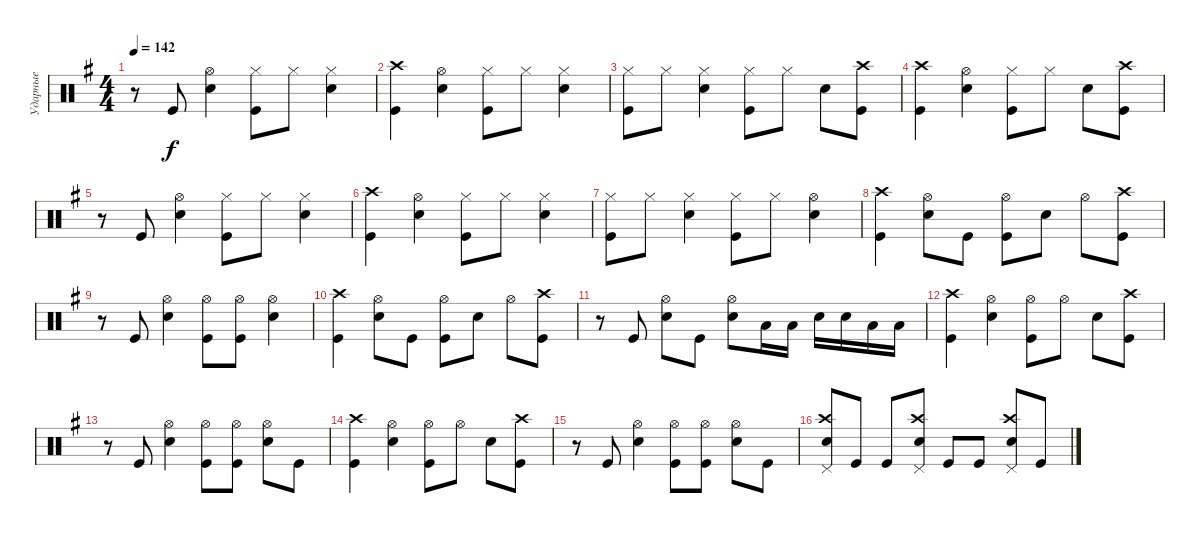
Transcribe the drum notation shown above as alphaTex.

\track ("Ударные" "Ударные") {instrument percussion}
\staff {score}
\articulation defaults
\ts (4 4)
\tempo 142
\clef neutral
\ks eminor
r.8{dy f} "Kick (hit)".8 ("Snare (hit) 2" "Hi-Hat (open)").4 ("Kick (hit)" "Hi-Hat (closed)").8 "Hi-Hat (closed)".8 ("Snare (hit) 2" "Hi-Hat (closed)").4 |
("Kick (hit)" "Crash high (hit)").4 ("Snare (hit) 2" "Hi-Hat (open)").4 ("Kick (hit)" "Hi-Hat (closed)").8 "Hi-Hat (closed)".8 ("Snare (hit) 2" "Hi-Hat (closed)").4 |
("Hi-Hat (closed)" "Kick (hit)").8 "Hi-Hat (closed)".8 ("Snare (hit) 2" "Hi-Hat (closed)").4 ("Kick (hit)" "Hi-Hat (closed)").8 "Hi-Hat (closed)".8 "Snare (hit) 2".8 ("Kick (hit)" "Crash high (hit)").8 |
("Kick (hit)" "Crash high (hit)").4 ("Snare (hit) 2" "Hi-Hat (open)").4 ("Kick (hit)" "Hi-Hat (closed)").8 "Hi-Hat (closed)".8 "Snare (hit) 2".8 ("Kick (hit)" "Crash high (hit)").8 |
r.8 "Kick (hit)".8 ("Snare (hit) 2" "Hi-Hat (open)").4 ("Kick (hit)" "Hi-Hat (closed)").8 "Hi-Hat (closed)".8 ("Snare (hit) 2" "Hi-Hat (closed)").4 |
("Kick (hit)" "Crash high (hit)").4 ("Snare (hit) 2" "Hi-Hat (open)").4 ("Kick (hit)" "Hi-Hat (closed)").8 "Hi-Hat (closed)".8 ("Snare (hit) 2" "Hi-Hat (closed)").4 |
("Hi-Hat (closed)" "Kick (hit)").8 "Hi-Hat (closed)".8 ("Snare (hit) 2" "Hi-Hat (closed)").4 ("Kick (hit)" "Hi-Hat (closed)").8 "Hi-Hat (closed)".8 ("Hi-Hat (open)" "Snare (hit) 2").4 |
("Kick (hit)" "Crash high (hit)").4 ("Snare (hit) 2" "Hi-Hat (open)").8 "Kick (hit)".8 ("Kick (hit)" "Hi-Hat (open)").8 "Snare (hit) 2".8 "Hi-Hat (open)".8 ("Kick (hit)" "Crash high (hit)").8 |
r.8 "Kick (hit)".8 ("Snare (hit) 2" "Hi-Hat (open)").4 ("Kick (hit)" "Hi-Hat (open)").8 ("Kick (hit)" "Hi-Hat (open)").8 ("Snare (hit) 2" "Hi-Hat (open)").4 |
("Kick (hit)" "Crash high (hit)").4 ("Snare (hit) 2" "Hi-Hat (open)").8 "Kick (hit)".8 ("Kick (hit)" "Hi-Hat (open)").8 "Snare (hit) 2".8 "Hi-Hat (open)".8 ("Kick (hit)" "Crash high (hit)").8 |
r.8 "Kick (hit)".8 ("Snare (hit) 2" "Hi-Hat (open)").8 "Kick (hit)".8 ("Snare (hit) 2" "Hi-Hat (open)").8 "Low Tom (hit)".16 "Low Tom (hit)".16 "Snare (hit) 2".16 "Snare (hit) 2".16 "Low Tom (hit)".16 "Low Tom (hit)".16 |
("Kick (hit)" "Crash high (hit)").4 ("Snare (hit) 2" "Hi-Hat (open)").4 ("Kick (hit)" "Hi-Hat (open)").8 "Hi-Hat (open)".8 "Snare (hit) 2".8 ("Kick (hit)" "Crash high (hit)").8 |
r.8 "Kick (hit)".8 ("Snare (hit) 2" "Hi-Hat (open)").4 ("Kick (hit)" "Hi-Hat (open)").8 ("Kick (hit)" "Hi-Hat (open)").8 ("Snare (hit) 2" "Hi-Hat (open)").8 "Kick (hit)".8 |
("Kick (hit)" "Crash high (hit)").4 ("Snare (hit) 2" "Hi-Hat (open)").4 ("Kick (hit)" "Hi-Hat (open)").8 "Hi-Hat (open)".8 "Snare (hit) 2".8 ("Kick (hit)" "Crash high (hit)").8 |
r.8 "Kick (hit)".8 ("Snare (hit) 2" "Hi-Hat (open)").4 ("Kick (hit)" "Hi-Hat (open)").8 ("Kick (hit)" "Hi-Hat (open)").8 ("Snare (hit) 2" "Hi-Hat (open)").8 "Kick (hit)".8 |
("Snare (hit) 2" "Crash high (hit)" "Pedal Hi-Hat (hit)").8 "Kick (hit)".8 "Kick (hit)".8 ("Snare (hit) 2" "Crash high (hit)" "Pedal Hi-Hat (hit)").8 "Kick (hit)".8 "Kick (hit)".8 ("Snare (hit) 2" "Crash high (hit)" "Pedal Hi-Hat (hit)").8 "Kick (hit)".8
